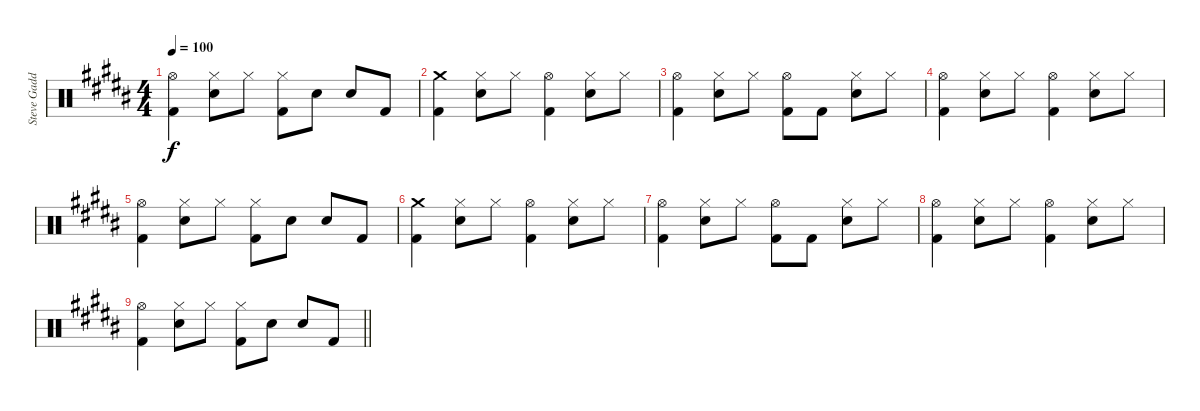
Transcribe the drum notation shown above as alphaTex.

\track ("Steve Gadd Drums" "Steve Gadd") {instrument percussion}
\staff {score}
\articulation defaults
\ts (4 4)
\tempo 100
\clef neutral
\ks b
("Hi-Hat (open)" "Kick (hit) 2").4{dy f} ("Hi-Hat (closed)" "Snare (hit) 2").8 "Hi-Hat (closed)".8 ("Hi-Hat (closed)" "Kick (hit) 2").8 "Snare (hit) 2".8 "Snare (hit) 2".8 "Kick (hit) 2".8 |
("Crash medium (hit)" "Kick (hit) 2").4 ("Hi-Hat (closed)" "Snare (hit) 2").8 "Hi-Hat (closed)".8 ("Hi-Hat (open)" "Kick (hit) 2").4 ("Hi-Hat (closed)" "Snare (hit) 2").8 "Hi-Hat (closed)".8 |
("Hi-Hat (open)" "Kick (hit) 2").4 ("Hi-Hat (closed)" "Snare (hit) 2").8 "Hi-Hat (closed)".8 ("Hi-Hat (open)" "Kick (hit) 2").8 "Kick (hit) 2".8 ("Hi-Hat (closed)" "Snare (hit) 2").8 "Hi-Hat (closed)".8 |
("Hi-Hat (open)" "Kick (hit) 2").4 ("Hi-Hat (closed)" "Snare (hit) 2").8 "Hi-Hat (closed)".8 ("Hi-Hat (open)" "Kick (hit) 2").4 ("Hi-Hat (closed)" "Snare (hit) 2").8 "Hi-Hat (closed)".8 |
("Hi-Hat (open)" "Kick (hit) 2").4 ("Hi-Hat (closed)" "Snare (hit) 2").8 "Hi-Hat (closed)".8 ("Hi-Hat (closed)" "Kick (hit) 2").8 "Snare (hit) 2".8 "Snare (hit) 2".8 "Kick (hit) 2".8 |
("Crash medium (hit)" "Kick (hit) 2").4 ("Hi-Hat (closed)" "Snare (hit) 2").8 "Hi-Hat (closed)".8 ("Hi-Hat (open)" "Kick (hit) 2").4 ("Hi-Hat (closed)" "Snare (hit) 2").8 "Hi-Hat (closed)".8 |
("Hi-Hat (open)" "Kick (hit) 2").4 ("Hi-Hat (closed)" "Snare (hit) 2").8 "Hi-Hat (closed)".8 ("Hi-Hat (open)" "Kick (hit) 2").8 "Kick (hit) 2".8 ("Hi-Hat (closed)" "Snare (hit) 2").8 "Hi-Hat (closed)".8 |
("Hi-Hat (open)" "Kick (hit) 2").4 ("Hi-Hat (closed)" "Snare (hit) 2").8 "Hi-Hat (closed)".8 ("Hi-Hat (open)" "Kick (hit) 2").4 ("Hi-Hat (closed)" "Snare (hit) 2").8 "Hi-Hat (closed)".8 |
\barLineRight lightlight
("Hi-Hat (open)" "Kick (hit) 2").4 ("Hi-Hat (closed)" "Snare (hit) 2").8 "Hi-Hat (closed)".8 ("Hi-Hat (closed)" "Kick (hit) 2").8 "Snare (hit) 2".8 "Snare (hit) 2".8 "Kick (hit) 2".8
